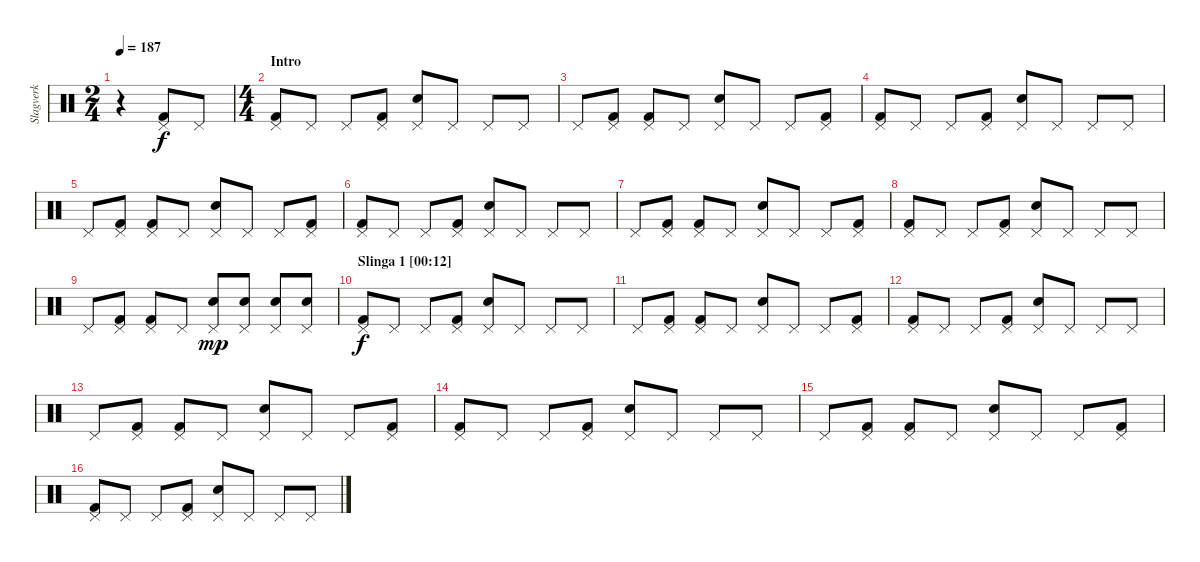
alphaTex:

\track ("Slagverk" "Slagverk") {instrument percussion}
\staff {score}
\articulation defaults
\ts (2 4)
\tempo 187
\clef neutral
\ks c
r.4{dy f} ("Pedal Hi-Hat (hit)" "Kick (hit) 2").8 "Pedal Hi-Hat (hit)".8 |
\ts (4 4)
\section ("" "Intro")
("Pedal Hi-Hat (hit)" "Kick (hit) 2").8 "Pedal Hi-Hat (hit)".8 "Pedal Hi-Hat (hit)".8 ("Pedal Hi-Hat (hit)" "Kick (hit) 2").8 ("Pedal Hi-Hat (hit)" "Electric Snare (hit)").8 "Pedal Hi-Hat (hit)".8 "Pedal Hi-Hat (hit)".8 "Pedal Hi-Hat (hit)".8 |
"Pedal Hi-Hat (hit)".8 ("Pedal Hi-Hat (hit)" "Kick (hit) 2").8 ("Pedal Hi-Hat (hit)" "Kick (hit) 2").8 "Pedal Hi-Hat (hit)".8 ("Pedal Hi-Hat (hit)" "Electric Snare (hit)").8 "Pedal Hi-Hat (hit)".8 "Pedal Hi-Hat (hit)".8 ("Pedal Hi-Hat (hit)" "Kick (hit) 2").8 |
("Pedal Hi-Hat (hit)" "Kick (hit) 2").8 "Pedal Hi-Hat (hit)".8 "Pedal Hi-Hat (hit)".8 ("Pedal Hi-Hat (hit)" "Kick (hit) 2").8 ("Pedal Hi-Hat (hit)" "Electric Snare (hit)").8 "Pedal Hi-Hat (hit)".8 "Pedal Hi-Hat (hit)".8 "Pedal Hi-Hat (hit)".8 |
"Pedal Hi-Hat (hit)".8 ("Pedal Hi-Hat (hit)" "Kick (hit) 2").8 ("Pedal Hi-Hat (hit)" "Kick (hit) 2").8 "Pedal Hi-Hat (hit)".8 ("Pedal Hi-Hat (hit)" "Electric Snare (hit)").8 "Pedal Hi-Hat (hit)".8 "Pedal Hi-Hat (hit)".8 ("Pedal Hi-Hat (hit)" "Kick (hit) 2").8 |
\section ("" "")
("Pedal Hi-Hat (hit)" "Kick (hit) 2").8 "Pedal Hi-Hat (hit)".8 "Pedal Hi-Hat (hit)".8 ("Pedal Hi-Hat (hit)" "Kick (hit) 2").8 ("Pedal Hi-Hat (hit)" "Electric Snare (hit)").8 "Pedal Hi-Hat (hit)".8 "Pedal Hi-Hat (hit)".8 "Pedal Hi-Hat (hit)".8 |
"Pedal Hi-Hat (hit)".8 ("Pedal Hi-Hat (hit)" "Kick (hit) 2").8 ("Pedal Hi-Hat (hit)" "Kick (hit) 2").8 "Pedal Hi-Hat (hit)".8 ("Pedal Hi-Hat (hit)" "Electric Snare (hit)").8 "Pedal Hi-Hat (hit)".8 "Pedal Hi-Hat (hit)".8 ("Pedal Hi-Hat (hit)" "Kick (hit) 2").8 |
("Pedal Hi-Hat (hit)" "Kick (hit) 2").8 "Pedal Hi-Hat (hit)".8 "Pedal Hi-Hat (hit)".8 ("Pedal Hi-Hat (hit)" "Kick (hit) 2").8 ("Pedal Hi-Hat (hit)" "Electric Snare (hit)").8 "Pedal Hi-Hat (hit)".8 "Pedal Hi-Hat (hit)".8 "Pedal Hi-Hat (hit)".8 |
"Pedal Hi-Hat (hit)".8 ("Pedal Hi-Hat (hit)" "Kick (hit) 2").8 ("Pedal Hi-Hat (hit)" "Kick (hit) 2").8 "Pedal Hi-Hat (hit)".8 ("Pedal Hi-Hat (hit)" "Electric Snare (hit)").8{dy mp} ("Pedal Hi-Hat (hit)" "Electric Snare (hit)").8 ("Pedal Hi-Hat (hit)" "Electric Snare (hit)").8 ("Pedal Hi-Hat (hit)" "Electric Snare (hit)").8 |
\section ("" "Slinga 1 [00:12]")
("Pedal Hi-Hat (hit)" "Kick (hit) 2").8{dy f} "Pedal Hi-Hat (hit)".8 "Pedal Hi-Hat (hit)".8 ("Pedal Hi-Hat (hit)" "Kick (hit) 2").8 ("Pedal Hi-Hat (hit)" "Electric Snare (hit)").8 "Pedal Hi-Hat (hit)".8 "Pedal Hi-Hat (hit)".8 "Pedal Hi-Hat (hit)".8 |
"Pedal Hi-Hat (hit)".8 ("Pedal Hi-Hat (hit)" "Kick (hit) 2").8 ("Pedal Hi-Hat (hit)" "Kick (hit) 2").8 "Pedal Hi-Hat (hit)".8 ("Pedal Hi-Hat (hit)" "Electric Snare (hit)").8 "Pedal Hi-Hat (hit)".8 "Pedal Hi-Hat (hit)".8 ("Pedal Hi-Hat (hit)" "Kick (hit) 2").8 |
("Pedal Hi-Hat (hit)" "Kick (hit) 2").8 "Pedal Hi-Hat (hit)".8 "Pedal Hi-Hat (hit)".8 ("Pedal Hi-Hat (hit)" "Kick (hit) 2").8 ("Pedal Hi-Hat (hit)" "Electric Snare (hit)").8 "Pedal Hi-Hat (hit)".8 "Pedal Hi-Hat (hit)".8 "Pedal Hi-Hat (hit)".8 |
"Pedal Hi-Hat (hit)".8 ("Pedal Hi-Hat (hit)" "Kick (hit) 2").8 ("Pedal Hi-Hat (hit)" "Kick (hit) 2").8 "Pedal Hi-Hat (hit)".8 ("Pedal Hi-Hat (hit)" "Electric Snare (hit)").8 "Pedal Hi-Hat (hit)".8 "Pedal Hi-Hat (hit)".8 ("Pedal Hi-Hat (hit)" "Kick (hit) 2").8 |
\section ("" "")
("Pedal Hi-Hat (hit)" "Kick (hit) 2").8 "Pedal Hi-Hat (hit)".8 "Pedal Hi-Hat (hit)".8 ("Pedal Hi-Hat (hit)" "Kick (hit) 2").8 ("Pedal Hi-Hat (hit)" "Electric Snare (hit)").8 "Pedal Hi-Hat (hit)".8 "Pedal Hi-Hat (hit)".8 "Pedal Hi-Hat (hit)".8 |
"Pedal Hi-Hat (hit)".8 ("Pedal Hi-Hat (hit)" "Kick (hit) 2").8 ("Pedal Hi-Hat (hit)" "Kick (hit) 2").8 "Pedal Hi-Hat (hit)".8 ("Pedal Hi-Hat (hit)" "Electric Snare (hit)").8 "Pedal Hi-Hat (hit)".8 "Pedal Hi-Hat (hit)".8 ("Pedal Hi-Hat (hit)" "Kick (hit) 2").8 |
("Pedal Hi-Hat (hit)" "Kick (hit) 2").8 "Pedal Hi-Hat (hit)".8 "Pedal Hi-Hat (hit)".8 ("Pedal Hi-Hat (hit)" "Kick (hit) 2").8 ("Pedal Hi-Hat (hit)" "Electric Snare (hit)").8 "Pedal Hi-Hat (hit)".8 "Pedal Hi-Hat (hit)".8 "Pedal Hi-Hat (hit)".8
